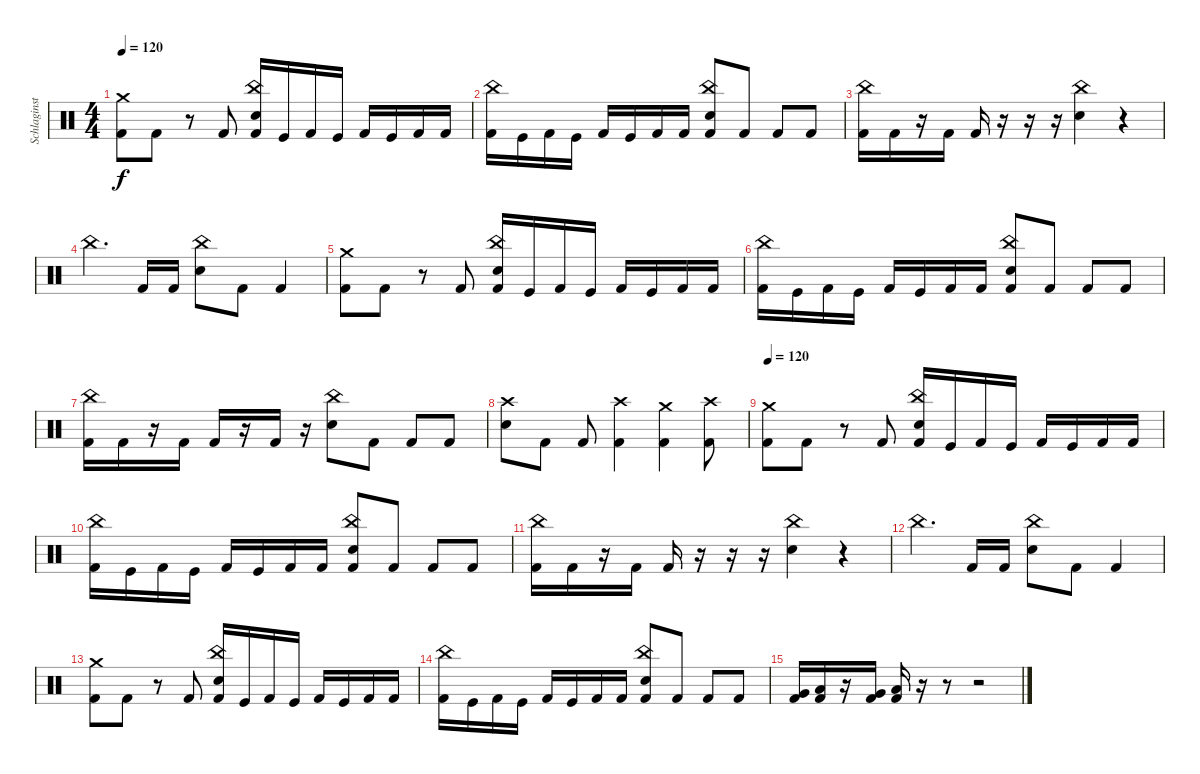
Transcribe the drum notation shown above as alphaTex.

\track ("Schlaginstrumente - Auswahl" "Schlaginst") {instrument percussion}
\staff
\articulation defaults
\ts (4 4)
\tempo 120
\clef neutral
\ks c
("Crash medium (hit)" "Kick (hit) 2").8{dy f} "Kick (hit) 2".8 r.8 "Kick (hit) 2".8 ("China (hit)" "Electric Snare (hit)" "Kick (hit) 2").16 "Kick (hit)".16 "Kick (hit) 2".16 "Kick (hit)".16 "Kick (hit) 2".16 "Kick (hit)".16 "Kick (hit) 2".16 "Kick (hit) 2".16 |
("China (hit)" "Kick (hit) 2").16 "Kick (hit)".16 "Kick (hit) 2".16 "Kick (hit)".16 "Kick (hit) 2".16 "Kick (hit)".16 "Kick (hit) 2".16 "Kick (hit) 2".16 ("China (hit)" "Electric Snare (hit)" "Kick (hit) 2").8 "Kick (hit) 2".8 "Kick (hit) 2".8 "Kick (hit) 2".8 |
("China (hit)" "Kick (hit) 2").16 "Kick (hit) 2".16 r.16 "Kick (hit) 2".16 "Kick (hit) 2".16 r.16 r.16 r.16 ("China (hit)" "Electric Snare (hit)").4 r.4 |
"China (hit)".4{d} "Kick (hit) 2".16 "Kick (hit) 2".16 ("China (hit)" "Electric Snare (hit)").8 "Kick (hit) 2".8 "Kick (hit) 2".4 |
("Crash medium (hit)" "Kick (hit) 2").8 "Kick (hit) 2".8 r.8 "Kick (hit) 2".8 ("China (hit)" "Electric Snare (hit)" "Kick (hit) 2").16 "Kick (hit)".16 "Kick (hit) 2".16 "Kick (hit)".16 "Kick (hit) 2".16 "Kick (hit)".16 "Kick (hit) 2".16 "Kick (hit) 2".16 |
("China (hit)" "Kick (hit) 2").16 "Kick (hit)".16 "Kick (hit) 2".16 "Kick (hit)".16 "Kick (hit) 2".16 "Kick (hit)".16 "Kick (hit) 2".16 "Kick (hit) 2".16 ("China (hit)" "Electric Snare (hit)" "Kick (hit) 2").8 "Kick (hit) 2".8 "Kick (hit) 2".8 "Kick (hit) 2".8 |
("China (hit)" "Kick (hit) 2").16 "Kick (hit) 2".16 r.16 "Kick (hit) 2".16 "Kick (hit) 2".16 r.16 "Kick (hit) 2".16 r.16 ("China (hit)" "Electric Snare (hit)").8 "Kick (hit) 2".8 "Kick (hit) 2".8 "Kick (hit) 2".8 |
("Crash high (hit)" "Electric Snare (hit)").8 "Kick (hit) 2".8 "Kick (hit) 2".8 ("Crash high (hit)" "Kick (hit) 2").4 ("Crash medium (hit)" "Kick (hit) 2").4 ("Crash high (hit)" "Kick (hit) 2").8 |
\tempo 120
("Crash medium (hit)" "Kick (hit) 2").8 "Kick (hit) 2".8 r.8 "Kick (hit) 2".8 ("China (hit)" "Electric Snare (hit)" "Kick (hit) 2").16 "Kick (hit)".16 "Kick (hit) 2".16 "Kick (hit)".16 "Kick (hit) 2".16 "Kick (hit)".16 "Kick (hit) 2".16 "Kick (hit) 2".16 |
("China (hit)" "Kick (hit) 2").16 "Kick (hit)".16 "Kick (hit) 2".16 "Kick (hit)".16 "Kick (hit) 2".16 "Kick (hit)".16 "Kick (hit) 2".16 "Kick (hit) 2".16 ("China (hit)" "Electric Snare (hit)" "Kick (hit) 2").8 "Kick (hit) 2".8 "Kick (hit) 2".8 "Kick (hit) 2".8 |
("China (hit)" "Kick (hit) 2").16 "Kick (hit) 2".16 r.16 "Kick (hit) 2".16 "Kick (hit) 2".16 r.16 r.16 r.16 ("China (hit)" "Electric Snare (hit)").4 r.4 |
"China (hit)".4{d} "Kick (hit) 2".16 "Kick (hit) 2".16 ("China (hit)" "Electric Snare (hit)").8 "Kick (hit) 2".8 "Kick (hit) 2".4 |
("Crash medium (hit)" "Kick (hit) 2").8 "Kick (hit) 2".8 r.8 "Kick (hit) 2".8 ("China (hit)" "Electric Snare (hit)" "Kick (hit) 2").16 "Kick (hit)".16 "Kick (hit) 2".16 "Kick (hit)".16 "Kick (hit) 2".16 "Kick (hit)".16 "Kick (hit) 2".16 "Kick (hit) 2".16 |
("China (hit)" "Kick (hit) 2").16 "Kick (hit)".16 "Kick (hit) 2".16 "Kick (hit)".16 "Kick (hit) 2".16 "Kick (hit)".16 "Kick (hit) 2".16 "Kick (hit) 2".16 ("China (hit)" "Electric Snare (hit)" "Kick (hit) 2").8 "Kick (hit) 2".8 "Kick (hit) 2".8 "Kick (hit) 2".8 |
("Very Low Tom (hit)" "Kick (hit) 2").16 ("Low Floor Tom (hit)" "Kick (hit) 2").16 r.16 ("Very Low Tom (hit)" "Kick (hit) 2").16 ("Low Floor Tom (hit)" "Kick (hit) 2").16 r.16 r.8 r.2
